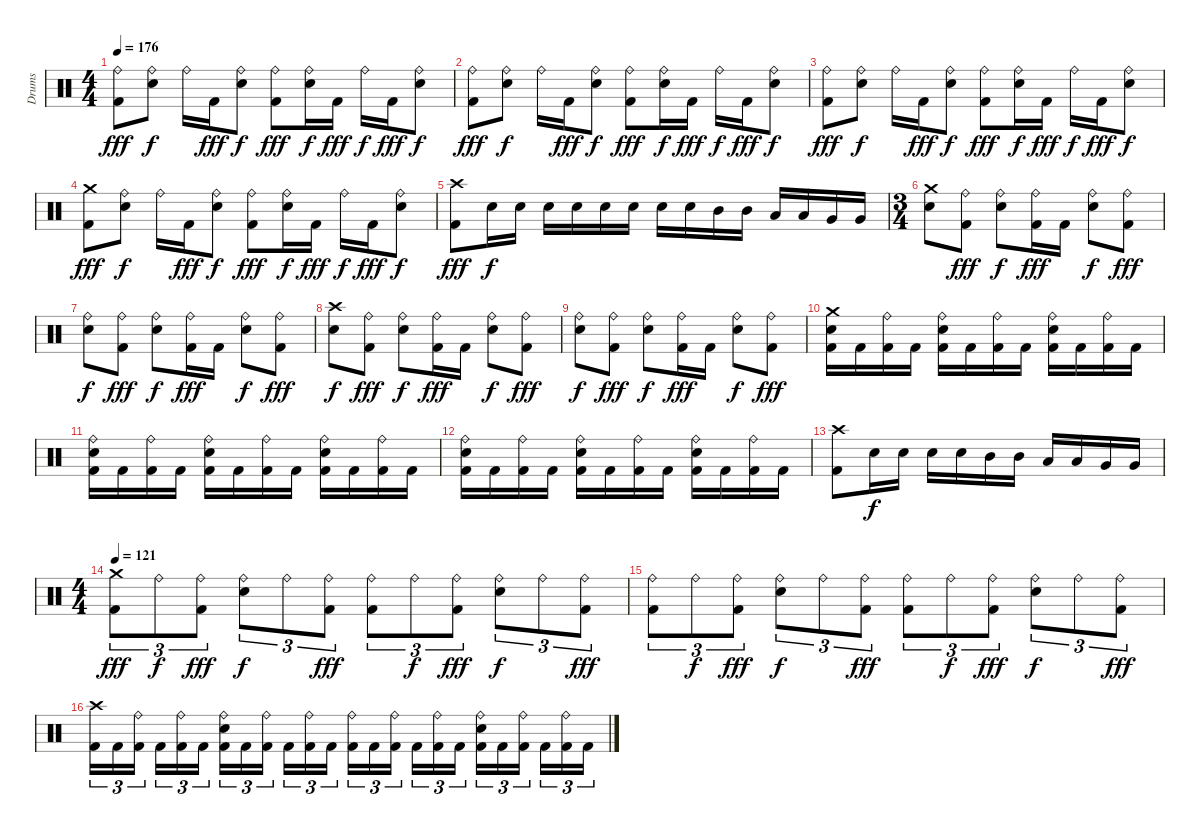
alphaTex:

\track ("Drums" "Drums") {instrument percussion}
\staff {score}
\articulation defaults
\ts (4 4)
\tempo 176
\clef neutral
\ks c
("Ride (bell)" "Kick (hit) 2").8{dy fff} ("Ride (bell)" "Snare (hit) 2").8{dy f} "Ride (bell)".16 "Kick (hit) 2".16{dy fff} ("Ride (bell)" "Snare (hit) 2").8{dy f} ("Ride (bell)" "Kick (hit) 2").8{dy fff} ("Ride (bell)" "Snare (hit) 2").16{dy f} "Kick (hit) 2".16{dy fff} "Ride (bell)".16{dy f} "Kick (hit) 2".16{dy fff} ("Ride (bell)" "Snare (hit) 2").8{dy f} |
("Ride (bell)" "Kick (hit) 2").8{dy fff} ("Ride (bell)" "Snare (hit) 2").8{dy f} "Ride (bell)".16 "Kick (hit) 2".16{dy fff} ("Ride (bell)" "Snare (hit) 2").8{dy f} ("Ride (bell)" "Kick (hit) 2").8{dy fff} ("Ride (bell)" "Snare (hit) 2").16{dy f} "Kick (hit) 2".16{dy fff} "Ride (bell)".16{dy f} "Kick (hit) 2".16{dy fff} ("Ride (bell)" "Snare (hit) 2").8{dy f} |
("Ride (bell)" "Kick (hit) 2").8{dy fff} ("Ride (bell)" "Snare (hit) 2").8{dy f} "Ride (bell)".16 "Kick (hit) 2".16{dy fff} ("Ride (bell)" "Snare (hit) 2").8{dy f} ("Ride (bell)" "Kick (hit) 2").8{dy fff} ("Ride (bell)" "Snare (hit) 2").16{dy f} "Kick (hit) 2".16{dy fff} "Ride (bell)".16{dy f} "Kick (hit) 2".16{dy fff} ("Ride (bell)" "Snare (hit) 2").8{dy f} |
("Crash medium (hit)" "Kick (hit) 2").8{dy fff} ("Ride (bell)" "Snare (hit) 2").8{dy f} "Ride (bell)".16 "Kick (hit) 2".16{dy fff} ("Ride (bell)" "Snare (hit) 2").8{dy f} ("Ride (bell)" "Kick (hit) 2").8{dy fff} ("Ride (bell)" "Snare (hit) 2").16{dy f} "Kick (hit) 2".16{dy fff} "Ride (bell)".16{dy f} "Kick (hit) 2".16{dy fff} ("Ride (bell)" "Snare (hit) 2").8{dy f} |
("Crash high (hit)" "Kick (hit) 2").8{dy fff} "Snare (hit) 2".16{dy f} "Snare (hit) 2".16 "Snare (hit) 2".16 "Snare (hit) 2".16 "Snare (hit) 2".16 "Snare (hit) 2".16 "Snare (hit) 2".16 "Snare (hit) 2".16 "Mid Tom (hit)".16 "Mid Tom (hit)".16 "Low Tom (hit)".16 "Low Tom (hit)".16 "Very Low Tom (hit)".16 "Very Low Tom (hit)".16 |
\ts (3 4)
("Crash medium (hit)" "Snare (hit) 2").8 ("Ride (bell)" "Kick (hit) 2").8{dy fff} ("Ride (bell)" "Snare (hit) 2").8{dy f} ("Ride (bell)" "Kick (hit) 2").16{dy fff} "Kick (hit) 2".16 ("Ride (bell)" "Snare (hit) 2").8{dy f} ("Ride (bell)" "Kick (hit) 2").8{dy fff} |
("Ride (bell)" "Snare (hit) 2").8{dy f} ("Ride (bell)" "Kick (hit) 2").8{dy fff} ("Ride (bell)" "Snare (hit) 2").8{dy f} ("Ride (bell)" "Kick (hit) 2").16{dy fff} "Kick (hit) 2".16 ("Ride (bell)" "Snare (hit) 2").8{dy f} ("Ride (bell)" "Kick (hit) 2").8{dy fff} |
("Crash high (hit)" "Snare (hit) 2").8{dy f} ("Ride (bell)" "Kick (hit) 2").8{dy fff} ("Ride (bell)" "Snare (hit) 2").8{dy f} ("Ride (bell)" "Kick (hit) 2").16{dy fff} "Kick (hit) 2".16 ("Ride (bell)" "Snare (hit) 2").8{dy f} ("Ride (bell)" "Kick (hit) 2").8{dy fff} |
("Ride (bell)" "Snare (hit) 2").8{dy f} ("Ride (bell)" "Kick (hit) 2").8{dy fff} ("Ride (bell)" "Snare (hit) 2").8{dy f} ("Ride (bell)" "Kick (hit) 2").16{dy fff} "Kick (hit) 2".16 ("Ride (bell)" "Snare (hit) 2").8{dy f} ("Ride (bell)" "Kick (hit) 2").8{dy fff} |
("Crash medium (hit)" "Snare (hit) 2" "Kick (hit) 2").16 "Kick (hit) 2".16 ("Ride (bell)" "Kick (hit) 2").16 "Kick (hit) 2".16 ("Ride (bell)" "Snare (hit) 2" "Kick (hit) 2").16 "Kick (hit) 2".16 ("Ride (bell)" "Kick (hit) 2").16 "Kick (hit) 2".16 ("Ride (bell)" "Snare (hit) 2" "Kick (hit) 2").16 "Kick (hit) 2".16 ("Ride (bell)" "Kick (hit) 2").16 "Kick (hit) 2".16 |
("Ride (bell)" "Snare (hit) 2" "Kick (hit) 2").16 "Kick (hit) 2".16 ("Ride (bell)" "Kick (hit) 2").16 "Kick (hit) 2".16 ("Ride (bell)" "Snare (hit) 2" "Kick (hit) 2").16 "Kick (hit) 2".16 ("Ride (bell)" "Kick (hit) 2").16 "Kick (hit) 2".16 ("Ride (bell)" "Snare (hit) 2" "Kick (hit) 2").16 "Kick (hit) 2".16 ("Ride (bell)" "Kick (hit) 2").16 "Kick (hit) 2".16 |
("Ride (bell)" "Snare (hit) 2" "Kick (hit) 2").16 "Kick (hit) 2".16 ("Ride (bell)" "Kick (hit) 2").16 "Kick (hit) 2".16 ("Ride (bell)" "Snare (hit) 2" "Kick (hit) 2").16 "Kick (hit) 2".16 ("Ride (bell)" "Kick (hit) 2").16 "Kick (hit) 2".16 ("Ride (bell)" "Snare (hit) 2" "Kick (hit) 2").16 "Kick (hit) 2".16 ("Ride (bell)" "Kick (hit) 2").16 "Kick (hit) 2".16 |
("Crash high (hit)" "Kick (hit) 2").8 "Snare (hit) 2".16{dy f} "Snare (hit) 2".16 "Snare (hit) 2".16 "Snare (hit) 2".16 "Mid Tom (hit)".16 "Mid Tom (hit)".16 "Low Tom (hit)".16 "Low Tom (hit)".16 "Very Low Tom (hit)".16 "Very Low Tom (hit)".16 |
\ts (4 4)
\tempo 121
("Crash medium (hit)" "Kick (hit) 2").8{tu (3 2) dy fff} "Ride (bell)".8{tu (3 2) dy f} ("Ride (bell)" "Kick (hit) 2").8{tu (3 2) dy fff} ("Ride (bell)" "Snare (hit) 2").8{tu (3 2) dy f} "Ride (bell)".8{tu (3 2)} ("Ride (bell)" "Kick (hit) 2").8{tu (3 2) dy fff} ("Ride (bell)" "Kick (hit) 2").8{tu (3 2)} "Ride (bell)".8{tu (3 2) dy f} ("Ride (bell)" "Kick (hit) 2").8{tu (3 2) dy fff} ("Ride (bell)" "Snare (hit) 2").8{tu (3 2) dy f} "Ride (bell)".8{tu (3 2)} ("Ride (bell)" "Kick (hit) 2").8{tu (3 2) dy fff} |
("Ride (bell)" "Kick (hit) 2").8{tu (3 2)} "Ride (bell)".8{tu (3 2) dy f} ("Ride (bell)" "Kick (hit) 2").8{tu (3 2) dy fff} ("Ride (bell)" "Snare (hit) 2").8{tu (3 2) dy f} "Ride (bell)".8{tu (3 2)} ("Ride (bell)" "Kick (hit) 2").8{tu (3 2) dy fff} ("Ride (bell)" "Kick (hit) 2").8{tu (3 2)} "Ride (bell)".8{tu (3 2) dy f} ("Ride (bell)" "Kick (hit) 2").8{tu (3 2) dy fff} ("Ride (bell)" "Snare (hit) 2").8{tu (3 2) dy f} "Ride (bell)".8{tu (3 2)} ("Ride (bell)" "Kick (hit) 2").8{tu (3 2) dy fff} |
("Crash high (hit)" "Kick (hit) 2").16{tu (3 2)} "Kick (hit) 2".16{tu (3 2)} ("Ride (bell)" "Kick (hit) 2").16{tu (3 2)} "Kick (hit) 2".16{tu (3 2)} ("Ride (bell)" "Kick (hit) 2").16{tu (3 2)} "Kick (hit) 2".16{tu (3 2)} ("Ride (bell)" "Snare (hit) 2" "Kick (hit) 2").16{tu (3 2)} "Kick (hit) 2".16{tu (3 2)} ("Ride (bell)" "Kick (hit) 2").16{tu (3 2)} "Kick (hit) 2".16{tu (3 2)} ("Ride (bell)" "Kick (hit) 2").16{tu (3 2)} "Kick (hit) 2".16{tu (3 2)} ("Ride (bell)" "Kick (hit) 2").16{tu (3 2)} "Kick (hit) 2".16{tu (3 2)} ("Ride (bell)" "Kick (hit) 2").16{tu (3 2)} "Kick (hit) 2".16{tu (3 2)} ("Ride (bell)" "Kick (hit) 2").16{tu (3 2)} "Kick (hit) 2".16{tu (3 2)} ("Ride (bell)" "Snare (hit) 2" "Kick (hit) 2").16{tu (3 2)} "Kick (hit) 2".16{tu (3 2)} ("Ride (bell)" "Kick (hit) 2").16{tu (3 2)} "Kick (hit) 2".16{tu (3 2)} ("Ride (bell)" "Kick (hit) 2").16{tu (3 2)} "Kick (hit) 2".16{tu (3 2)}
